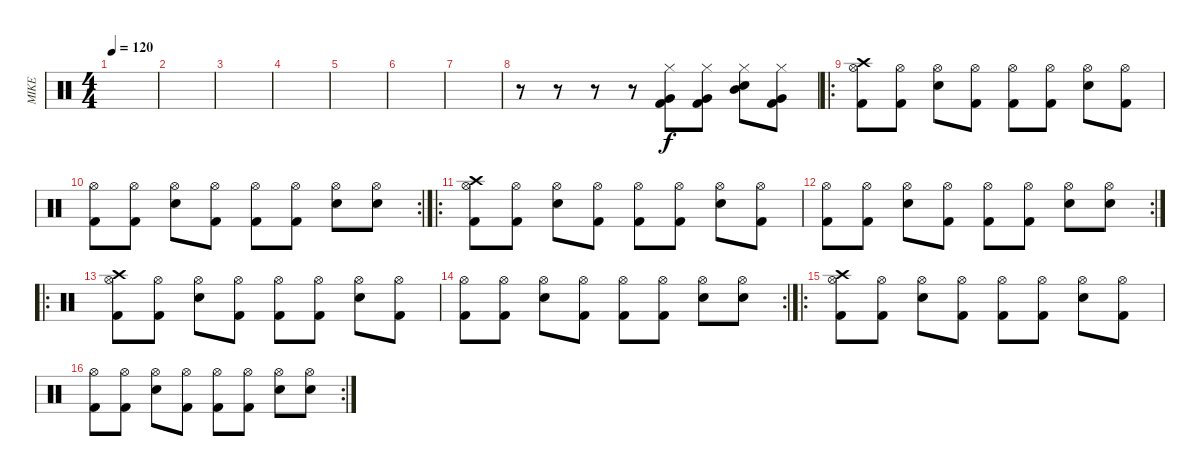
\track ("MIKE" "MIKE") {instrument percussion}
\staff {score}
\articulation defaults
\ts (4 4)
\tempo 120
\clef neutral
\ks c
|
|
|
|
|
|
|
r.8 r.8 r.8 r.8 ("Hi-Hat (closed)" "Very Low Tom (hit)" "Kick (hit) 2").8 ("Hi-Hat (closed)" "Very Low Tom (hit)" "Kick (hit) 2").8 ("Hi-Hat (closed)" "Mid Tom (hit)" "Snare (hit) 2").8 ("Hi-Hat (closed)" "Very Low Tom (hit)" "Kick (hit) 2").8 |
\ro
("Crash high (hit)" "Hi-Hat (open)" "Kick (hit) 2").8{dy f} ("Hi-Hat (open)" "Kick (hit) 2").8 ("Hi-Hat (open)" "Snare (hit) 2").8 ("Hi-Hat (open)" "Kick (hit) 2").8 ("Hi-Hat (open)" "Kick (hit) 2").8 ("Hi-Hat (open)" "Kick (hit) 2").8 ("Hi-Hat (open)" "Snare (hit) 2").8 ("Hi-Hat (open)" "Kick (hit) 2").8 |
\rc 2
("Hi-Hat (open)" "Kick (hit) 2").8 ("Hi-Hat (open)" "Kick (hit) 2").8 ("Hi-Hat (open)" "Snare (hit) 2").8 ("Hi-Hat (open)" "Kick (hit) 2").8 ("Hi-Hat (open)" "Kick (hit) 2").8 ("Hi-Hat (open)" "Kick (hit) 2").8 ("Hi-Hat (open)" "Snare (hit) 2").8 ("Hi-Hat (open)" "Snare (hit) 2").8 |
\ro
("Crash high (hit)" "Hi-Hat (open)" "Kick (hit) 2").8 ("Hi-Hat (open)" "Kick (hit) 2").8 ("Hi-Hat (open)" "Snare (hit) 2").8 ("Hi-Hat (open)" "Kick (hit) 2").8 ("Hi-Hat (open)" "Kick (hit) 2").8 ("Hi-Hat (open)" "Kick (hit) 2").8 ("Hi-Hat (open)" "Snare (hit) 2").8 ("Hi-Hat (open)" "Kick (hit) 2").8 |
\rc 2
("Hi-Hat (open)" "Kick (hit) 2").8 ("Hi-Hat (open)" "Kick (hit) 2").8 ("Hi-Hat (open)" "Snare (hit) 2").8 ("Hi-Hat (open)" "Kick (hit) 2").8 ("Hi-Hat (open)" "Kick (hit) 2").8 ("Hi-Hat (open)" "Kick (hit) 2").8 ("Hi-Hat (open)" "Snare (hit) 2").8 ("Hi-Hat (open)" "Snare (hit) 2").8 |
\ro
("Crash high (hit)" "Hi-Hat (open)" "Kick (hit) 2").8 ("Hi-Hat (open)" "Kick (hit) 2").8 ("Hi-Hat (open)" "Snare (hit) 2").8 ("Hi-Hat (open)" "Kick (hit) 2").8 ("Hi-Hat (open)" "Kick (hit) 2").8 ("Hi-Hat (open)" "Kick (hit) 2").8 ("Hi-Hat (open)" "Snare (hit) 2").8 ("Hi-Hat (open)" "Kick (hit) 2").8 |
\rc 2
("Hi-Hat (open)" "Kick (hit) 2").8 ("Hi-Hat (open)" "Kick (hit) 2").8 ("Hi-Hat (open)" "Snare (hit) 2").8 ("Hi-Hat (open)" "Kick (hit) 2").8 ("Hi-Hat (open)" "Kick (hit) 2").8 ("Hi-Hat (open)" "Kick (hit) 2").8 ("Hi-Hat (open)" "Snare (hit) 2").8 ("Hi-Hat (open)" "Snare (hit) 2").8 |
\ro
("Crash high (hit)" "Hi-Hat (open)" "Kick (hit) 2").8 ("Hi-Hat (open)" "Kick (hit) 2").8 ("Hi-Hat (open)" "Snare (hit) 2").8 ("Hi-Hat (open)" "Kick (hit) 2").8 ("Hi-Hat (open)" "Kick (hit) 2").8 ("Hi-Hat (open)" "Kick (hit) 2").8 ("Hi-Hat (open)" "Snare (hit) 2").8 ("Hi-Hat (open)" "Kick (hit) 2").8 |
\rc 2
("Hi-Hat (open)" "Kick (hit) 2").8 ("Hi-Hat (open)" "Kick (hit) 2").8 ("Hi-Hat (open)" "Snare (hit) 2").8 ("Hi-Hat (open)" "Kick (hit) 2").8 ("Hi-Hat (open)" "Kick (hit) 2").8 ("Hi-Hat (open)" "Kick (hit) 2").8 ("Hi-Hat (open)" "Snare (hit) 2").8 ("Hi-Hat (open)" "Snare (hit) 2").8
